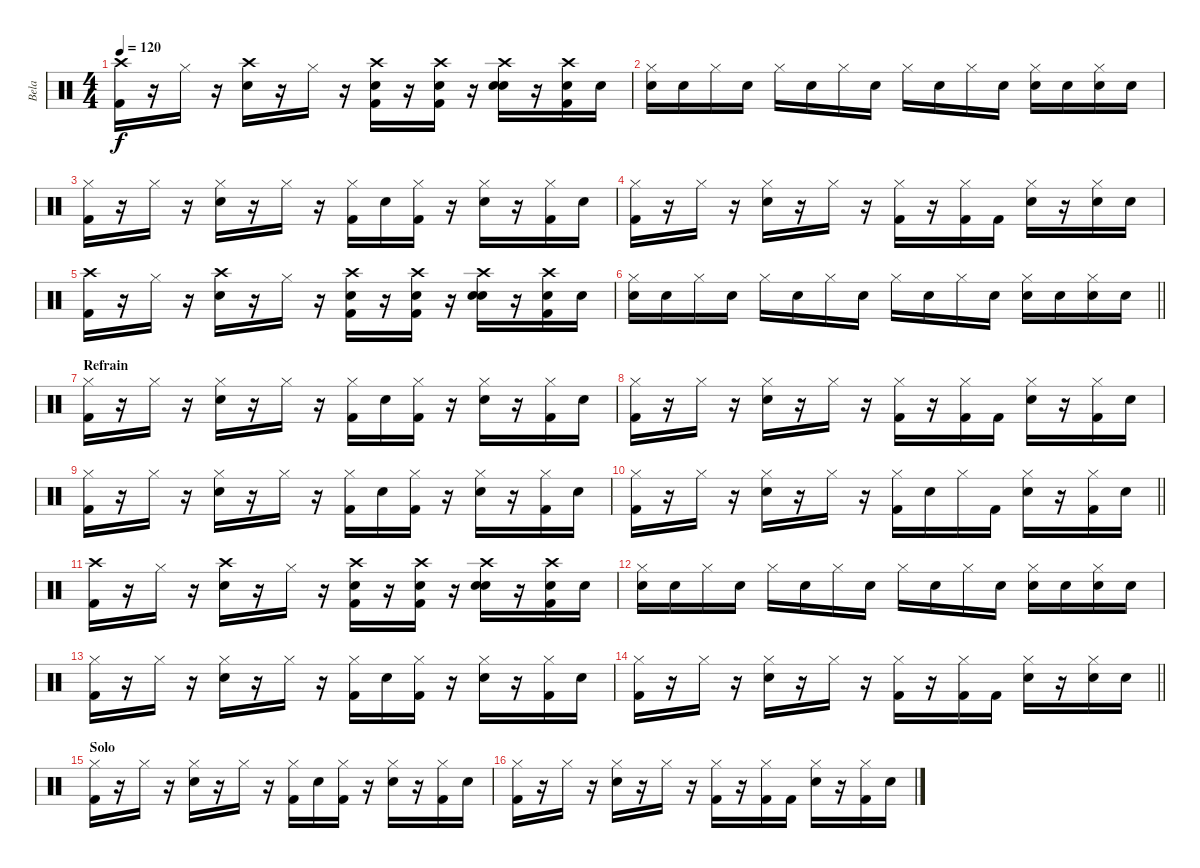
\track ("Bela" "Bela") {instrument percussion}
\staff {score}
\articulation defaults
\ts (4 4)
\tempo 120
\clef neutral
\ks c
("Crash high (hit)" "Kick (hit) 2").16{dy f} r.16 "Hi-Hat (closed)".16 r.16 ("Crash high (hit)" "Electric Snare (hit)").16 r.16 "Hi-Hat (closed)".16 r.16 ("Crash high (hit)" "Kick (hit) 2" "Electric Snare (hit)").16 r.16 ("Crash high (hit)" "Kick (hit) 2" "Electric Snare (hit)").16 r.16 ("Crash high (hit)" "Electric Snare (hit)" "Snare (hit) 2").16 r.16 ("Crash high (hit)" "Kick (hit) 2" "Electric Snare (hit)").16 "Electric Snare (hit)".16 |
("Hi-Hat (closed)" "Electric Snare (hit)").16 "Snare (hit) 2".16 "Hi-Hat (closed)".16 "Electric Snare (hit)".16 "Hi-Hat (closed)".16 "Electric Snare (hit)".16 "Hi-Hat (closed)".16 "Electric Snare (hit)".16 "Hi-Hat (closed)".16 "Electric Snare (hit)".16 "Hi-Hat (closed)".16 "Electric Snare (hit)".16 ("Hi-Hat (closed)" "Electric Snare (hit)").16 "Electric Snare (hit)".16 ("Hi-Hat (closed)" "Electric Snare (hit)").16 "Electric Snare (hit)".16 |
("Hi-Hat (closed)" "Kick (hit) 2").16 r.16 "Hi-Hat (closed)".16 r.16 ("Hi-Hat (closed)" "Electric Snare (hit)").16 r.16 "Hi-Hat (closed)".16 r.16 ("Hi-Hat (closed)" "Kick (hit) 2").16 "Electric Snare (hit)".16 ("Hi-Hat (closed)" "Kick (hit) 2").16 r.16 ("Hi-Hat (closed)" "Electric Snare (hit)").16 r.16 ("Hi-Hat (closed)" "Kick (hit) 2").16 "Electric Snare (hit)".16 |
("Hi-Hat (closed)" "Kick (hit) 2").16 r.16 "Hi-Hat (closed)".16 r.16 ("Hi-Hat (closed)" "Electric Snare (hit)").16 r.16 "Hi-Hat (closed)".16 r.16 ("Hi-Hat (closed)" "Kick (hit) 2").16 r.16 ("Hi-Hat (closed)" "Kick (hit) 2").16 "Kick (hit) 2".16 ("Hi-Hat (closed)" "Electric Snare (hit)").16 r.16 ("Hi-Hat (closed)" "Electric Snare (hit)").16 "Electric Snare (hit)".16 |
("Crash high (hit)" "Kick (hit) 2").16 r.16 "Hi-Hat (closed)".16 r.16 ("Crash high (hit)" "Electric Snare (hit)").16 r.16 "Hi-Hat (closed)".16 r.16 ("Crash high (hit)" "Kick (hit) 2" "Electric Snare (hit)").16 r.16 ("Crash high (hit)" "Kick (hit) 2" "Electric Snare (hit)").16 r.16 ("Crash high (hit)" "Electric Snare (hit)" "Snare (hit) 2").16 r.16 ("Crash high (hit)" "Kick (hit) 2" "Electric Snare (hit)").16 "Electric Snare (hit)".16 |
\barLineRight lightlight
("Hi-Hat (closed)" "Electric Snare (hit)").16 "Snare (hit) 2".16 "Hi-Hat (closed)".16 "Electric Snare (hit)".16 "Hi-Hat (closed)".16 "Electric Snare (hit)".16 "Hi-Hat (closed)".16 "Electric Snare (hit)".16 "Hi-Hat (closed)".16 "Electric Snare (hit)".16 "Hi-Hat (closed)".16 "Electric Snare (hit)".16 ("Hi-Hat (closed)" "Electric Snare (hit)").16 "Electric Snare (hit)".16 ("Hi-Hat (closed)" "Electric Snare (hit)").16 "Electric Snare (hit)".16 |
\section ("" "Refrain")
("Hi-Hat (closed)" "Kick (hit) 2").16 r.16 "Hi-Hat (closed)".16 r.16 ("Hi-Hat (closed)" "Electric Snare (hit)").16 r.16 "Hi-Hat (closed)".16 r.16 ("Hi-Hat (closed)" "Kick (hit) 2").16 "Electric Snare (hit)".16 ("Hi-Hat (closed)" "Kick (hit) 2").16 r.16 ("Hi-Hat (closed)" "Electric Snare (hit)").16 r.16 ("Hi-Hat (closed)" "Kick (hit) 2").16 "Electric Snare (hit)".16 |
("Hi-Hat (closed)" "Kick (hit) 2").16 r.16 "Hi-Hat (closed)".16 r.16 ("Hi-Hat (closed)" "Electric Snare (hit)").16 r.16 "Hi-Hat (closed)".16 r.16 ("Hi-Hat (closed)" "Kick (hit) 2").16 r.16 ("Hi-Hat (closed)" "Kick (hit) 2").16 "Kick (hit) 2".16 ("Hi-Hat (closed)" "Electric Snare (hit)").16 r.16 ("Hi-Hat (closed)" "Kick (hit) 2").16 "Electric Snare (hit)".16 |
("Hi-Hat (closed)" "Kick (hit) 2").16 r.16 "Hi-Hat (closed)".16 r.16 ("Hi-Hat (closed)" "Electric Snare (hit)").16 r.16 "Hi-Hat (closed)".16 r.16 ("Hi-Hat (closed)" "Kick (hit) 2").16 "Electric Snare (hit)".16 ("Hi-Hat (closed)" "Kick (hit) 2").16 r.16 ("Hi-Hat (closed)" "Electric Snare (hit)").16 r.16 ("Hi-Hat (closed)" "Kick (hit) 2").16 "Electric Snare (hit)".16 |
\barLineRight lightlight
("Hi-Hat (closed)" "Kick (hit) 2").16 r.16 "Hi-Hat (closed)".16 r.16 ("Hi-Hat (closed)" "Electric Snare (hit)").16 r.16 "Hi-Hat (closed)".16 r.16 ("Hi-Hat (closed)" "Kick (hit) 2").16 "Snare (hit) 2".16 "Hi-Hat (closed)".16 "Kick (hit) 2".16 ("Hi-Hat (closed)" "Electric Snare (hit)").16 r.16 ("Hi-Hat (closed)" "Kick (hit) 2").16 "Electric Snare (hit)".16 |
("Crash high (hit)" "Kick (hit) 2").16 r.16 "Hi-Hat (closed)".16 r.16 ("Crash high (hit)" "Electric Snare (hit)").16 r.16 "Hi-Hat (closed)".16 r.16 ("Crash high (hit)" "Kick (hit) 2" "Electric Snare (hit)").16 r.16 ("Crash high (hit)" "Kick (hit) 2" "Electric Snare (hit)").16 r.16 ("Crash high (hit)" "Electric Snare (hit)" "Snare (hit) 2").16 r.16 ("Crash high (hit)" "Kick (hit) 2" "Electric Snare (hit)").16 "Electric Snare (hit)".16 |
("Hi-Hat (closed)" "Electric Snare (hit)").16 "Snare (hit) 2".16 "Hi-Hat (closed)".16 "Electric Snare (hit)".16 "Hi-Hat (closed)".16 "Electric Snare (hit)".16 "Hi-Hat (closed)".16 "Electric Snare (hit)".16 "Hi-Hat (closed)".16 "Electric Snare (hit)".16 "Hi-Hat (closed)".16 "Electric Snare (hit)".16 ("Hi-Hat (closed)" "Electric Snare (hit)").16 "Electric Snare (hit)".16 ("Hi-Hat (closed)" "Electric Snare (hit)").16 "Electric Snare (hit)".16 |
("Hi-Hat (closed)" "Kick (hit) 2").16 r.16 "Hi-Hat (closed)".16 r.16 ("Hi-Hat (closed)" "Electric Snare (hit)").16 r.16 "Hi-Hat (closed)".16 r.16 ("Hi-Hat (closed)" "Kick (hit) 2").16 "Electric Snare (hit)".16 ("Hi-Hat (closed)" "Kick (hit) 2").16 r.16 ("Hi-Hat (closed)" "Electric Snare (hit)").16 r.16 ("Hi-Hat (closed)" "Kick (hit) 2").16 "Electric Snare (hit)".16 |
\barLineRight lightlight
("Hi-Hat (closed)" "Kick (hit) 2").16 r.16 "Hi-Hat (closed)".16 r.16 ("Hi-Hat (closed)" "Electric Snare (hit)").16 r.16 "Hi-Hat (closed)".16 r.16 ("Hi-Hat (closed)" "Kick (hit) 2").16 r.16 ("Hi-Hat (closed)" "Kick (hit) 2").16 "Kick (hit) 2".16 ("Hi-Hat (closed)" "Electric Snare (hit)").16 r.16 ("Hi-Hat (closed)" "Electric Snare (hit)").16 "Electric Snare (hit)".16 |
\section ("" "Solo")
("Hi-Hat (closed)" "Kick (hit) 2").16 r.16 "Hi-Hat (closed)".16 r.16 ("Hi-Hat (closed)" "Electric Snare (hit)").16 r.16 "Hi-Hat (closed)".16 r.16 ("Hi-Hat (closed)" "Kick (hit) 2").16 "Electric Snare (hit)".16 ("Hi-Hat (closed)" "Kick (hit) 2").16 r.16 ("Hi-Hat (closed)" "Electric Snare (hit)").16 r.16 ("Hi-Hat (closed)" "Kick (hit) 2").16 "Electric Snare (hit)".16 |
("Hi-Hat (closed)" "Kick (hit) 2").16 r.16 "Hi-Hat (closed)".16 r.16 ("Hi-Hat (closed)" "Electric Snare (hit)").16 r.16 "Hi-Hat (closed)".16 r.16 ("Hi-Hat (closed)" "Kick (hit) 2").16 r.16 ("Hi-Hat (closed)" "Kick (hit) 2").16 "Kick (hit) 2".16 ("Hi-Hat (closed)" "Electric Snare (hit)").16 r.16 ("Hi-Hat (closed)" "Kick (hit) 2").16 "Electric Snare (hit)".16
